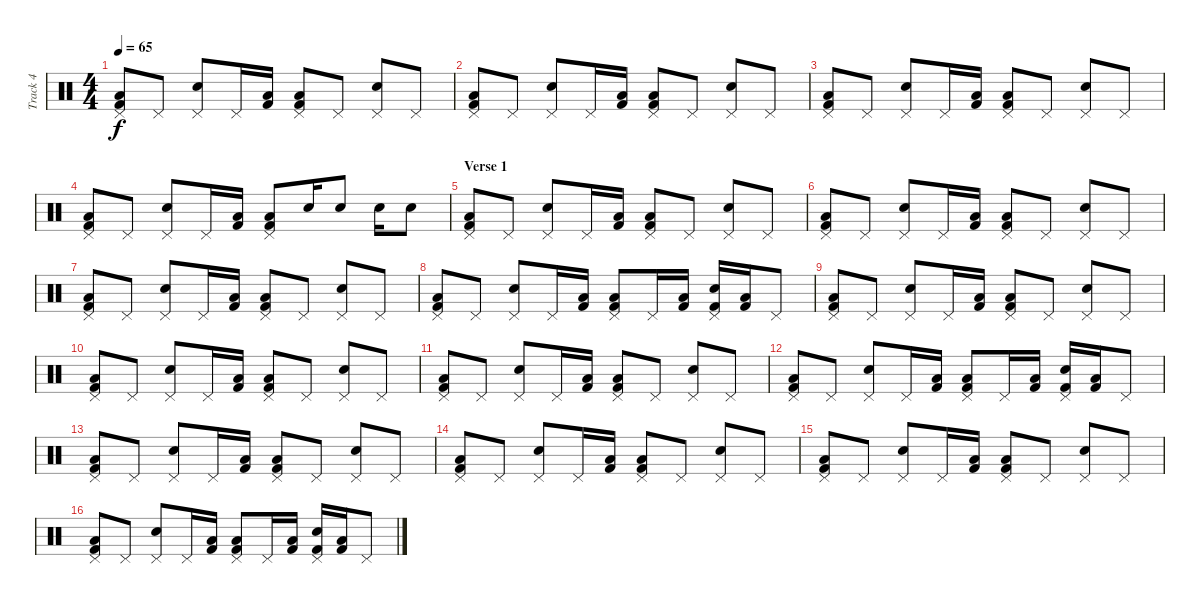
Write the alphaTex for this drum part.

\track ("Track 4" "Track 4") {instrument percussion}
\staff {score}
\articulation defaults
\ts (4 4)
\tempo 65
\clef neutral
\ks c
("Pedal Hi-Hat (hit)" "Low Floor Tom (hit)" "Kick (hit) 2").8{dy f} "Pedal Hi-Hat (hit)".8 ("Pedal Hi-Hat (hit)" "Electric Snare (hit)").8 "Pedal Hi-Hat (hit)".16 ("Low Floor Tom (hit)" "Kick (hit) 2").16 ("Pedal Hi-Hat (hit)" "Low Floor Tom (hit)" "Kick (hit) 2").8 "Pedal Hi-Hat (hit)".8 ("Pedal Hi-Hat (hit)" "Electric Snare (hit)").8 "Pedal Hi-Hat (hit)".8 |
("Pedal Hi-Hat (hit)" "Low Floor Tom (hit)" "Kick (hit) 2").8 "Pedal Hi-Hat (hit)".8 ("Pedal Hi-Hat (hit)" "Electric Snare (hit)").8 "Pedal Hi-Hat (hit)".16 ("Low Floor Tom (hit)" "Kick (hit) 2").16 ("Pedal Hi-Hat (hit)" "Low Floor Tom (hit)" "Kick (hit) 2").8 "Pedal Hi-Hat (hit)".8 ("Pedal Hi-Hat (hit)" "Electric Snare (hit)").8 "Pedal Hi-Hat (hit)".8 |
("Pedal Hi-Hat (hit)" "Low Floor Tom (hit)" "Kick (hit) 2").8 "Pedal Hi-Hat (hit)".8 ("Pedal Hi-Hat (hit)" "Electric Snare (hit)").8 "Pedal Hi-Hat (hit)".16 ("Low Floor Tom (hit)" "Kick (hit) 2").16 ("Pedal Hi-Hat (hit)" "Low Floor Tom (hit)" "Kick (hit) 2").8 "Pedal Hi-Hat (hit)".8 ("Pedal Hi-Hat (hit)" "Electric Snare (hit)").8 "Pedal Hi-Hat (hit)".8 |
("Pedal Hi-Hat (hit)" "Low Floor Tom (hit)" "Kick (hit) 2").8 "Pedal Hi-Hat (hit)".8 ("Pedal Hi-Hat (hit)" "Electric Snare (hit)").8 "Pedal Hi-Hat (hit)".16 ("Low Floor Tom (hit)" "Kick (hit) 2").16 ("Pedal Hi-Hat (hit)" "Low Floor Tom (hit)" "Kick (hit) 2").8 "Electric Snare (hit)".16 "Electric Snare (hit)".8 "Electric Snare (hit)".16 "Electric Snare (hit)".8 |
\section ("" "Verse 1")
("Pedal Hi-Hat (hit)" "Low Floor Tom (hit)" "Kick (hit) 2").8 "Pedal Hi-Hat (hit)".8 ("Pedal Hi-Hat (hit)" "Electric Snare (hit)").8 "Pedal Hi-Hat (hit)".16 ("Low Floor Tom (hit)" "Kick (hit) 2").16 ("Pedal Hi-Hat (hit)" "Low Floor Tom (hit)" "Kick (hit) 2").8 "Pedal Hi-Hat (hit)".8 ("Pedal Hi-Hat (hit)" "Electric Snare (hit)").8 "Pedal Hi-Hat (hit)".8 |
("Pedal Hi-Hat (hit)" "Low Floor Tom (hit)" "Kick (hit) 2").8 "Pedal Hi-Hat (hit)".8 ("Pedal Hi-Hat (hit)" "Electric Snare (hit)").8 "Pedal Hi-Hat (hit)".16 ("Low Floor Tom (hit)" "Kick (hit) 2").16 ("Pedal Hi-Hat (hit)" "Low Floor Tom (hit)" "Kick (hit) 2").8 "Pedal Hi-Hat (hit)".8 ("Pedal Hi-Hat (hit)" "Electric Snare (hit)").8 "Pedal Hi-Hat (hit)".8 |
("Pedal Hi-Hat (hit)" "Low Floor Tom (hit)" "Kick (hit) 2").8 "Pedal Hi-Hat (hit)".8 ("Pedal Hi-Hat (hit)" "Electric Snare (hit)").8 "Pedal Hi-Hat (hit)".16 ("Low Floor Tom (hit)" "Kick (hit) 2").16 ("Pedal Hi-Hat (hit)" "Low Floor Tom (hit)" "Kick (hit) 2").8 "Pedal Hi-Hat (hit)".8 ("Pedal Hi-Hat (hit)" "Electric Snare (hit)").8 "Pedal Hi-Hat (hit)".8 |
("Pedal Hi-Hat (hit)" "Low Floor Tom (hit)" "Kick (hit) 2").8 "Pedal Hi-Hat (hit)".8 ("Pedal Hi-Hat (hit)" "Electric Snare (hit)").8 "Pedal Hi-Hat (hit)".16 ("Low Floor Tom (hit)" "Kick (hit) 2").16 ("Pedal Hi-Hat (hit)" "Low Floor Tom (hit)" "Kick (hit) 2").8 "Pedal Hi-Hat (hit)".16 ("Low Floor Tom (hit)" "Kick (hit) 2").16 ("Pedal Hi-Hat (hit)" "Electric Snare (hit)" "Kick (hit) 2").16 ("Low Floor Tom (hit)" "Kick (hit) 2").16 "Pedal Hi-Hat (hit)".8 |
("Pedal Hi-Hat (hit)" "Low Floor Tom (hit)" "Kick (hit) 2").8 "Pedal Hi-Hat (hit)".8 ("Pedal Hi-Hat (hit)" "Electric Snare (hit)").8 "Pedal Hi-Hat (hit)".16 ("Low Floor Tom (hit)" "Kick (hit) 2").16 ("Pedal Hi-Hat (hit)" "Low Floor Tom (hit)" "Kick (hit) 2").8 "Pedal Hi-Hat (hit)".8 ("Pedal Hi-Hat (hit)" "Electric Snare (hit)").8 "Pedal Hi-Hat (hit)".8 |
("Pedal Hi-Hat (hit)" "Low Floor Tom (hit)" "Kick (hit) 2").8 "Pedal Hi-Hat (hit)".8 ("Pedal Hi-Hat (hit)" "Electric Snare (hit)").8 "Pedal Hi-Hat (hit)".16 ("Low Floor Tom (hit)" "Kick (hit) 2").16 ("Pedal Hi-Hat (hit)" "Low Floor Tom (hit)" "Kick (hit) 2").8 "Pedal Hi-Hat (hit)".8 ("Pedal Hi-Hat (hit)" "Electric Snare (hit)").8 "Pedal Hi-Hat (hit)".8 |
("Pedal Hi-Hat (hit)" "Low Floor Tom (hit)" "Kick (hit) 2").8 "Pedal Hi-Hat (hit)".8 ("Pedal Hi-Hat (hit)" "Electric Snare (hit)").8 "Pedal Hi-Hat (hit)".16 ("Low Floor Tom (hit)" "Kick (hit) 2").16 ("Pedal Hi-Hat (hit)" "Low Floor Tom (hit)" "Kick (hit) 2").8 "Pedal Hi-Hat (hit)".8 ("Pedal Hi-Hat (hit)" "Electric Snare (hit)").8 "Pedal Hi-Hat (hit)".8 |
("Pedal Hi-Hat (hit)" "Low Floor Tom (hit)" "Kick (hit) 2").8 "Pedal Hi-Hat (hit)".8 ("Pedal Hi-Hat (hit)" "Electric Snare (hit)").8 "Pedal Hi-Hat (hit)".16 ("Low Floor Tom (hit)" "Kick (hit) 2").16 ("Pedal Hi-Hat (hit)" "Low Floor Tom (hit)" "Kick (hit) 2").8 "Pedal Hi-Hat (hit)".16 ("Low Floor Tom (hit)" "Kick (hit) 2").16 ("Pedal Hi-Hat (hit)" "Electric Snare (hit)" "Kick (hit) 2").16 ("Low Floor Tom (hit)" "Kick (hit) 2").16 "Pedal Hi-Hat (hit)".8 |
("Pedal Hi-Hat (hit)" "Low Floor Tom (hit)" "Kick (hit) 2").8 "Pedal Hi-Hat (hit)".8 ("Pedal Hi-Hat (hit)" "Electric Snare (hit)").8 "Pedal Hi-Hat (hit)".16 ("Low Floor Tom (hit)" "Kick (hit) 2").16 ("Pedal Hi-Hat (hit)" "Low Floor Tom (hit)" "Kick (hit) 2").8 "Pedal Hi-Hat (hit)".8 ("Pedal Hi-Hat (hit)" "Electric Snare (hit)").8 "Pedal Hi-Hat (hit)".8 |
("Pedal Hi-Hat (hit)" "Low Floor Tom (hit)" "Kick (hit) 2").8 "Pedal Hi-Hat (hit)".8 ("Pedal Hi-Hat (hit)" "Electric Snare (hit)").8 "Pedal Hi-Hat (hit)".16 ("Low Floor Tom (hit)" "Kick (hit) 2").16 ("Pedal Hi-Hat (hit)" "Low Floor Tom (hit)" "Kick (hit) 2").8 "Pedal Hi-Hat (hit)".8 ("Pedal Hi-Hat (hit)" "Electric Snare (hit)").8 "Pedal Hi-Hat (hit)".8 |
("Pedal Hi-Hat (hit)" "Low Floor Tom (hit)" "Kick (hit) 2").8 "Pedal Hi-Hat (hit)".8 ("Pedal Hi-Hat (hit)" "Electric Snare (hit)").8 "Pedal Hi-Hat (hit)".16 ("Low Floor Tom (hit)" "Kick (hit) 2").16 ("Pedal Hi-Hat (hit)" "Low Floor Tom (hit)" "Kick (hit) 2").8 "Pedal Hi-Hat (hit)".8 ("Pedal Hi-Hat (hit)" "Electric Snare (hit)").8 "Pedal Hi-Hat (hit)".8 |
("Pedal Hi-Hat (hit)" "Low Floor Tom (hit)" "Kick (hit) 2").8 "Pedal Hi-Hat (hit)".8 ("Pedal Hi-Hat (hit)" "Electric Snare (hit)").8 "Pedal Hi-Hat (hit)".16 ("Low Floor Tom (hit)" "Kick (hit) 2").16 ("Pedal Hi-Hat (hit)" "Low Floor Tom (hit)" "Kick (hit) 2").8 "Pedal Hi-Hat (hit)".16 ("Low Floor Tom (hit)" "Kick (hit) 2").16 ("Pedal Hi-Hat (hit)" "Electric Snare (hit)" "Kick (hit) 2").16 ("Low Floor Tom (hit)" "Kick (hit) 2").16 "Pedal Hi-Hat (hit)".8
